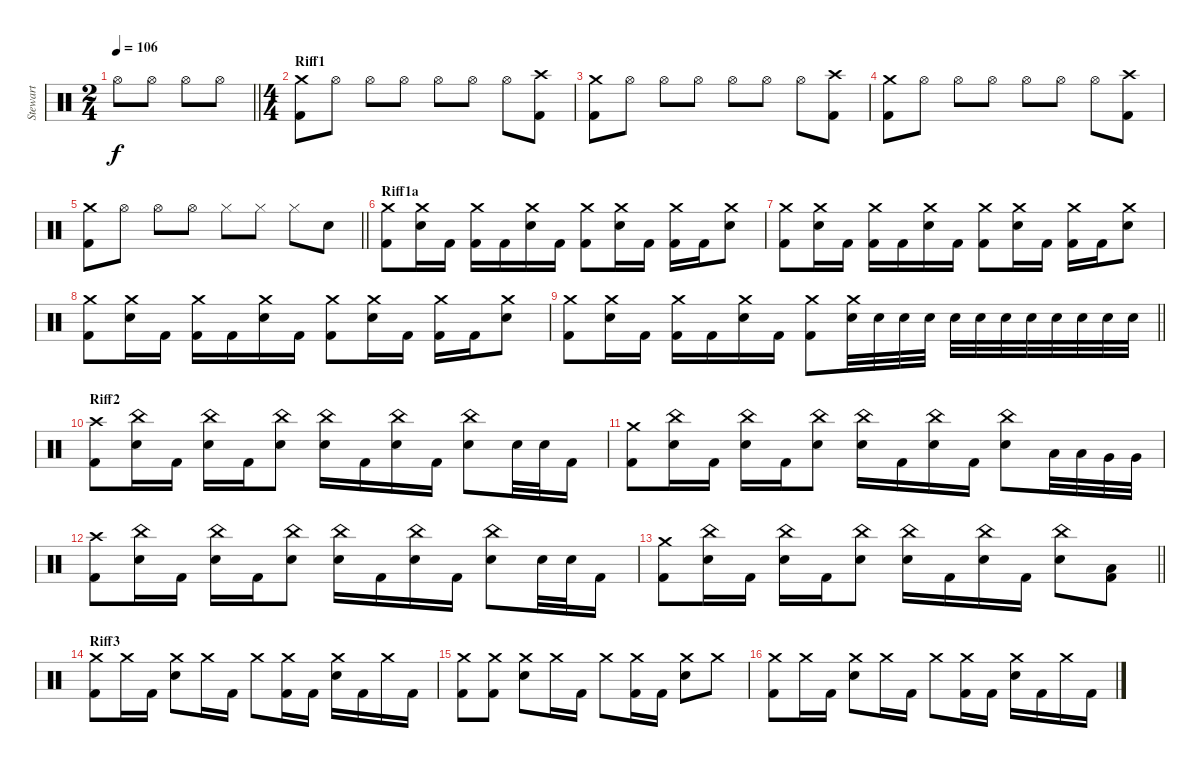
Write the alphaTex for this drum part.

\track ("Stewart" "Stewart") {instrument percussion}
\staff {score}
\articulation defaults
\ts (2 4)
\tempo 106
\clef neutral
\barLineRight lightlight
\ks c "Hi-Hat (open)".8{dy f} "Hi-Hat (open)".8 "Hi-Hat (open)".8 "Hi-Hat (open)".8
|
\ts (4 4)
\section ("" "Riff1")
("Crash medium (hit)" "Kick (hit) 2").8 "Hi-Hat (open)".8 "Hi-Hat (open)".8 "Hi-Hat (open)".8 "Hi-Hat (open)".8 "Hi-Hat (open)".8 "Hi-Hat (open)".8 ("Crash high (hit)" "Kick (hit) 2").8 |
("Crash medium (hit)" "Kick (hit) 2").8 "Hi-Hat (open)".8 "Hi-Hat (open)".8 "Hi-Hat (open)".8 "Hi-Hat (open)".8 "Hi-Hat (open)".8 "Hi-Hat (open)".8 ("Crash high (hit)" "Kick (hit) 2").8 |
("Crash medium (hit)" "Kick (hit) 2").8 "Hi-Hat (open)".8 "Hi-Hat (open)".8 "Hi-Hat (open)".8 "Hi-Hat (open)".8 "Hi-Hat (open)".8 "Hi-Hat (open)".8 ("Crash high (hit)" "Kick (hit) 2").8 |
\barLineRight lightlight
("Crash medium (hit)" "Kick (hit) 2").8 "Hi-Hat (open)".8 "Hi-Hat (open)".8 "Hi-Hat (open)".8 "Hi-Hat (closed)".8 "Hi-Hat (closed)".8 "Hi-Hat (closed)".8 "Electric Snare (hit)".8 |
\section ("" "Riff1a")
("Crash medium (hit)" "Kick (hit) 2").8 ("Crash medium (hit)" "Electric Snare (hit)").16 "Kick (hit) 2".16 ("Crash medium (hit)" "Kick (hit) 2").16 "Kick (hit) 2".16 ("Crash medium (hit)" "Electric Snare (hit)").16 "Kick (hit) 2".16 ("Crash medium (hit)" "Kick (hit) 2").8 ("Crash medium (hit)" "Electric Snare (hit)").16 "Kick (hit) 2".16 ("Crash medium (hit)" "Kick (hit) 2").16 "Kick (hit) 2".16 ("Crash medium (hit)" "Electric Snare (hit)").8 |
("Crash medium (hit)" "Kick (hit) 2").8 ("Crash medium (hit)" "Electric Snare (hit)").16 "Kick (hit) 2".16 ("Crash medium (hit)" "Kick (hit) 2").16 "Kick (hit) 2".16 ("Crash medium (hit)" "Electric Snare (hit)").16 "Kick (hit) 2".16 ("Crash medium (hit)" "Kick (hit) 2").8 ("Crash medium (hit)" "Electric Snare (hit)").16 "Kick (hit) 2".16 ("Crash medium (hit)" "Kick (hit) 2").16 "Kick (hit) 2".16 ("Crash medium (hit)" "Electric Snare (hit)").8 |
("Crash medium (hit)" "Kick (hit) 2").8 ("Crash medium (hit)" "Electric Snare (hit)").16 "Kick (hit) 2".16 ("Crash medium (hit)" "Kick (hit) 2").16 "Kick (hit) 2".16 ("Crash medium (hit)" "Electric Snare (hit)").16 "Kick (hit) 2".16 ("Crash medium (hit)" "Kick (hit) 2").8 ("Crash medium (hit)" "Electric Snare (hit)").16 "Kick (hit) 2".16 ("Crash medium (hit)" "Kick (hit) 2").16 "Kick (hit) 2".16 ("Crash medium (hit)" "Electric Snare (hit)").8 |
\barLineRight lightlight
("Crash medium (hit)" "Kick (hit) 2").8 ("Crash medium (hit)" "Electric Snare (hit)").16 "Kick (hit) 2".16 ("Crash medium (hit)" "Kick (hit) 2").16 "Kick (hit) 2".16 ("Crash medium (hit)" "Electric Snare (hit)").16 "Kick (hit) 2".16 ("Crash medium (hit)" "Kick (hit) 2").8 ("Crash medium (hit)" "Electric Snare (hit)").32 "Electric Snare (hit)".32 "Electric Snare (hit)".32 "Electric Snare (hit)".32 "Electric Snare (hit)".32 "Electric Snare (hit)".32 "Electric Snare (hit)".32 "Electric Snare (hit)".32 "Electric Snare (hit)".32 "Electric Snare (hit)".32 "Electric Snare (hit)".32 "Electric Snare (hit)".32 |
\section ("" "Riff2")
("Crash high (hit)" "Kick (hit) 2").8 ("China (hit)" "Electric Snare (hit)").16 "Kick (hit) 2".16 ("China (hit)" "Electric Snare (hit)").16 "Kick (hit) 2".16 ("China (hit)" "Electric Snare (hit)").8 ("China (hit)" "Electric Snare (hit)").16 "Kick (hit) 2".16 ("China (hit)" "Electric Snare (hit)").16 "Kick (hit) 2".16 ("China (hit)" "Electric Snare (hit)").8 "Electric Snare (hit)".32 "Electric Snare (hit)".32 "Kick (hit) 2".16 |
("Crash medium (hit)" "Kick (hit) 2").8 ("China (hit)" "Electric Snare (hit)").16 "Kick (hit) 2".16 ("China (hit)" "Electric Snare (hit)").16 "Kick (hit) 2".16 ("China (hit)" "Electric Snare (hit)").8 ("China (hit)" "Electric Snare (hit)").16 "Kick (hit) 2".16 ("China (hit)" "Electric Snare (hit)").16 "Kick (hit) 2".16 ("China (hit)" "Electric Snare (hit)").8 "Low Tom (hit)".32 "Low Tom (hit)".32 "Very Low Tom (hit)".32 "Very Low Tom (hit)".32 |
("Crash high (hit)" "Kick (hit) 2").8 ("China (hit)" "Electric Snare (hit)").16 "Kick (hit) 2".16 ("China (hit)" "Electric Snare (hit)").16 "Kick (hit) 2".16 ("China (hit)" "Electric Snare (hit)").8 ("China (hit)" "Electric Snare (hit)").16 "Kick (hit) 2".16 ("China (hit)" "Electric Snare (hit)").16 "Kick (hit) 2".16 ("China (hit)" "Electric Snare (hit)").8 "Electric Snare (hit)".32 "Electric Snare (hit)".32 "Kick (hit) 2".16 |
\barLineRight lightlight
("Crash medium (hit)" "Kick (hit) 2").8 ("China (hit)" "Electric Snare (hit)").16 "Kick (hit) 2".16 ("China (hit)" "Electric Snare (hit)").16 "Kick (hit) 2".16 ("China (hit)" "Electric Snare (hit)").8 ("China (hit)" "Electric Snare (hit)").16 "Kick (hit) 2".16 ("China (hit)" "Electric Snare (hit)").16 "Kick (hit) 2".16 ("China (hit)" "Electric Snare (hit)").8 ("Low Tom (hit)" "Kick (hit) 2").8 |
\section ("" "Riff3")
("Crash medium (hit)" "Kick (hit) 2").8 "Crash medium (hit)".16 "Kick (hit) 2".16 ("Crash medium (hit)" "Electric Snare (hit)").8 "Crash medium (hit)".16 "Kick (hit) 2".16 "Crash medium (hit)".8 ("Crash medium (hit)" "Kick (hit) 2").16 "Kick (hit) 2".16 ("Crash medium (hit)" "Electric Snare (hit)").16 "Kick (hit) 2".16 "Crash medium (hit)".16 "Kick (hit) 2".16 |
("Crash medium (hit)" "Kick (hit) 2").8 ("Crash medium (hit)" "Kick (hit) 2").8 ("Crash medium (hit)" "Electric Snare (hit)").8 "Crash medium (hit)".16 "Kick (hit) 2".16 "Crash medium (hit)".8 ("Crash medium (hit)" "Kick (hit) 2").16 "Kick (hit) 2".16 ("Crash medium (hit)" "Electric Snare (hit)").8 "Crash medium (hit)".8 |
("Crash medium (hit)" "Kick (hit) 2").8 "Crash medium (hit)".16 "Kick (hit) 2".16 ("Crash medium (hit)" "Electric Snare (hit)").8 "Crash medium (hit)".16 "Kick (hit) 2".16 "Crash medium (hit)".8 ("Crash medium (hit)" "Kick (hit) 2").16 "Kick (hit) 2".16 ("Crash medium (hit)" "Electric Snare (hit)").16 "Kick (hit) 2".16 "Crash medium (hit)".16 "Kick (hit) 2".16
